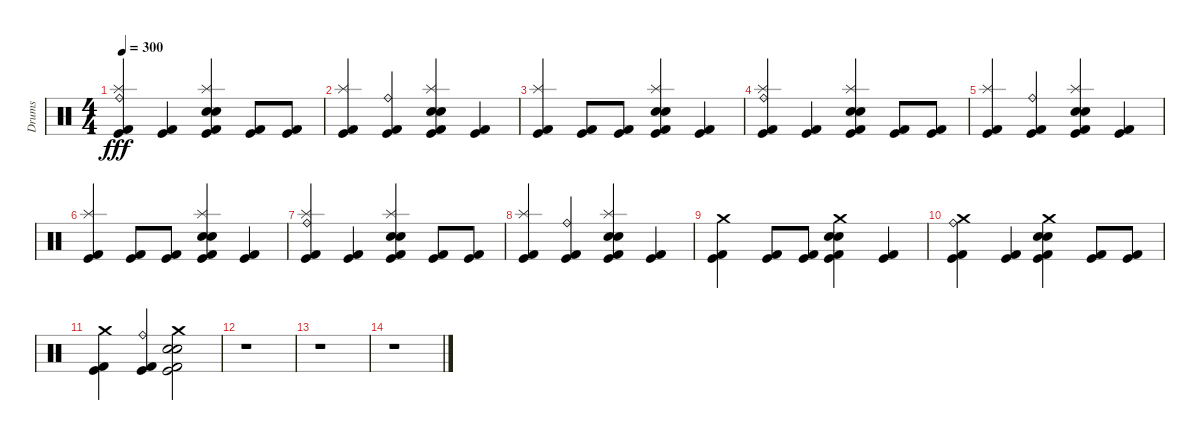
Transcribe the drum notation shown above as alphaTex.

\track ("Drums" "Drums") {instrument percussion}
\staff {score}
\articulation defaults
\ts (4 4)
\tempo 300
\clef neutral
\ks c
("Kick (hit) 2" "Ride (bell)" "Splash (hit)" "Kick (hit)").4{dy fff} ("Kick (hit) 2" "Kick (hit)").4 ("Kick (hit) 2" "Electric Snare (hit)" "Snare (hit) 2" "Splash (hit)" "Kick (hit)").4 ("Kick (hit) 2" "Kick (hit)").8 ("Kick (hit) 2" "Kick (hit)").8 |
("Kick (hit) 2" "Splash (hit)" "Kick (hit)").4 ("Kick (hit) 2" "Ride (bell)" "Kick (hit)").4 ("Kick (hit) 2" "Snare (hit) 2" "Electric Snare (hit)" "Splash (hit)" "Kick (hit)").4 ("Kick (hit) 2" "Kick (hit)").4 |
("Kick (hit) 2" "Splash (hit)" "Kick (hit)").4 ("Kick (hit) 2" "Kick (hit)").8 ("Kick (hit) 2" "Kick (hit)").8 ("Kick (hit) 2" "Snare (hit) 2" "Electric Snare (hit)" "Splash (hit)" "Kick (hit)").4 ("Kick (hit) 2" "Kick (hit)").4 |
("Kick (hit) 2" "Ride (bell)" "Splash (hit)" "Kick (hit)").4 ("Kick (hit) 2" "Kick (hit)").4 ("Kick (hit) 2" "Electric Snare (hit)" "Snare (hit) 2" "Splash (hit)" "Kick (hit)").4 ("Kick (hit) 2" "Kick (hit)").8 ("Kick (hit) 2" "Kick (hit)").8 |
("Kick (hit) 2" "Splash (hit)" "Kick (hit)").4 ("Kick (hit) 2" "Ride (bell)" "Kick (hit)").4 ("Kick (hit) 2" "Snare (hit) 2" "Electric Snare (hit)" "Splash (hit)" "Kick (hit)").4 ("Kick (hit) 2" "Kick (hit)").4 |
("Kick (hit) 2" "Splash (hit)" "Kick (hit)").4 ("Kick (hit) 2" "Kick (hit)").8 ("Kick (hit) 2" "Kick (hit)").8 ("Kick (hit) 2" "Snare (hit) 2" "Electric Snare (hit)" "Splash (hit)" "Kick (hit)").4 ("Kick (hit) 2" "Kick (hit)").4 |
("Kick (hit) 2" "Ride (bell)" "Splash (hit)" "Kick (hit)").4 ("Kick (hit) 2" "Kick (hit)").4 ("Kick (hit) 2" "Electric Snare (hit)" "Snare (hit) 2" "Splash (hit)" "Kick (hit)").4 ("Kick (hit) 2" "Kick (hit)").8 ("Kick (hit) 2" "Kick (hit)").8 |
("Kick (hit) 2" "Splash (hit)" "Kick (hit)").4 ("Kick (hit) 2" "Ride (bell)" "Kick (hit)").4 ("Kick (hit) 2" "Snare (hit) 2" "Electric Snare (hit)" "Splash (hit)" "Kick (hit)").4 ("Kick (hit) 2" "Kick (hit)").4 |
("Kick (hit) 2" "Crash medium (hit)" "Kick (hit)").4 ("Kick (hit) 2" "Kick (hit)").8 ("Kick (hit) 2" "Kick (hit)").8 ("Kick (hit) 2" "Snare (hit) 2" "Electric Snare (hit)" "Crash medium (hit)" "Kick (hit)").4 ("Kick (hit) 2" "Kick (hit)").4 |
("Kick (hit) 2" "Ride (bell)" "Crash medium (hit)" "Kick (hit)").4 ("Kick (hit) 2" "Kick (hit)").4 ("Kick (hit) 2" "Electric Snare (hit)" "Snare (hit) 2" "Crash medium (hit)" "Kick (hit)").4 ("Kick (hit) 2" "Kick (hit)").8 ("Kick (hit) 2" "Kick (hit)").8 |
("Kick (hit) 2" "Crash medium (hit)" "Kick (hit)").4 ("Kick (hit) 2" "Ride (bell)" "Kick (hit)").4 ("Kick (hit) 2" "Crash medium (hit)" "Snare (hit) 2" "Electric Snare (hit)" "Kick (hit)").2 |
r.1 |
r.1 |
r.1
